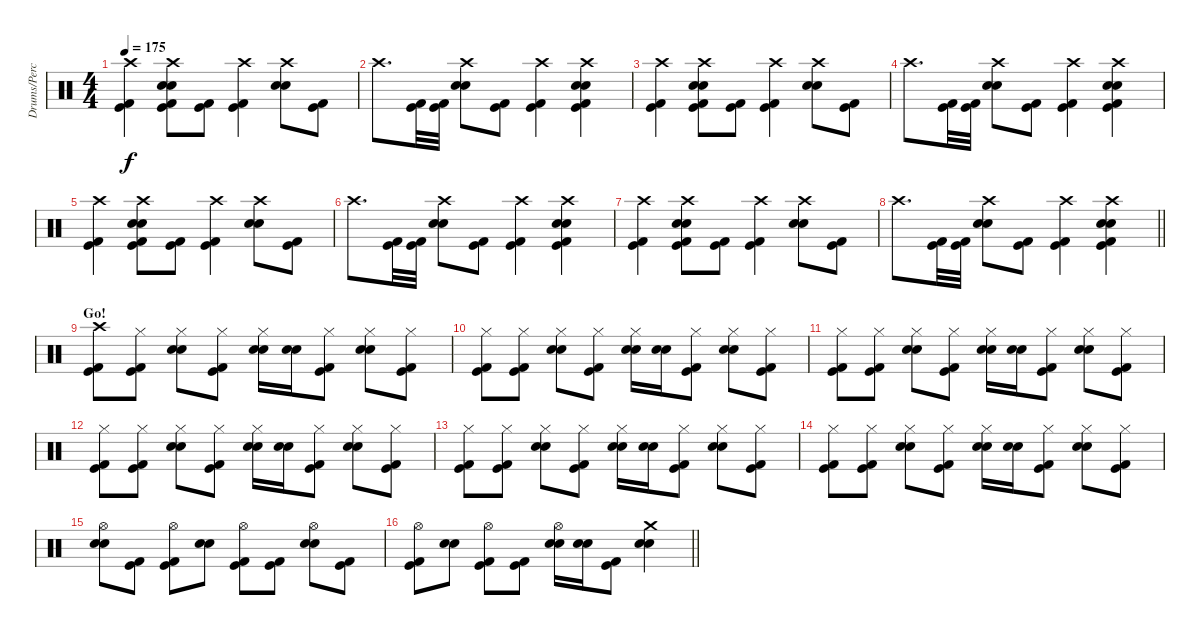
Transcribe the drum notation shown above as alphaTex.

\track ("Drums/Percussion" "Drums/Perc") {instrument percussion}
\staff {score}
\articulation defaults
\ts (4 4)
\tempo 175
\clef neutral
\ks c
("Crash high (hit)" "Kick (hit)" "Kick (hit) 2").4{dy f} ("Crash high (hit)" "Electric Snare (hit)" "Snare (hit) 2" "Kick (hit)" "Kick (hit) 2").8 ("Kick (hit)" "Kick (hit) 2").8 ("Crash high (hit)" "Kick (hit)" "Kick (hit) 2").4 ("Crash high (hit)" "Electric Snare (hit)" "Snare (hit) 2").8 ("Kick (hit)" "Kick (hit) 2").8 |
"Crash high (hit)".8{d} ("Kick (hit)" "Kick (hit) 2").32 ("Kick (hit)" "Kick (hit) 2").32 ("Crash high (hit)" "Electric Snare (hit)" "Snare (hit) 2").8 ("Kick (hit)" "Kick (hit) 2").8 ("Crash high (hit)" "Kick (hit)" "Kick (hit) 2").4 ("Crash high (hit)" "Electric Snare (hit)" "Snare (hit) 2" "Kick (hit)" "Kick (hit) 2").4 |
("Crash high (hit)" "Kick (hit)" "Kick (hit) 2").4 ("Crash high (hit)" "Electric Snare (hit)" "Snare (hit) 2" "Kick (hit)" "Kick (hit) 2").8 ("Kick (hit)" "Kick (hit) 2").8 ("Crash high (hit)" "Kick (hit)" "Kick (hit) 2").4 ("Crash high (hit)" "Electric Snare (hit)" "Snare (hit) 2").8 ("Kick (hit)" "Kick (hit) 2").8 |
"Crash high (hit)".8{d} ("Kick (hit)" "Kick (hit) 2").32 ("Kick (hit)" "Kick (hit) 2").32 ("Crash high (hit)" "Electric Snare (hit)" "Snare (hit) 2").8 ("Kick (hit)" "Kick (hit) 2").8 ("Crash high (hit)" "Kick (hit)" "Kick (hit) 2").4 ("Crash high (hit)" "Electric Snare (hit)" "Snare (hit) 2" "Kick (hit)" "Kick (hit) 2").4 |
("Crash high (hit)" "Kick (hit)" "Kick (hit) 2").4 ("Crash high (hit)" "Electric Snare (hit)" "Snare (hit) 2" "Kick (hit)" "Kick (hit) 2").8 ("Kick (hit)" "Kick (hit) 2").8 ("Crash high (hit)" "Kick (hit)" "Kick (hit) 2").4 ("Crash high (hit)" "Electric Snare (hit)" "Snare (hit) 2").8 ("Kick (hit)" "Kick (hit) 2").8 |
"Crash high (hit)".8{d} ("Kick (hit)" "Kick (hit) 2").32 ("Kick (hit)" "Kick (hit) 2").32 ("Crash high (hit)" "Electric Snare (hit)" "Snare (hit) 2").8 ("Kick (hit)" "Kick (hit) 2").8 ("Crash high (hit)" "Kick (hit)" "Kick (hit) 2").4 ("Crash high (hit)" "Electric Snare (hit)" "Snare (hit) 2" "Kick (hit)" "Kick (hit) 2").4 |
("Crash high (hit)" "Kick (hit)" "Kick (hit) 2").4 ("Crash high (hit)" "Electric Snare (hit)" "Snare (hit) 2" "Kick (hit)" "Kick (hit) 2").8 ("Kick (hit)" "Kick (hit) 2").8 ("Crash high (hit)" "Kick (hit)" "Kick (hit) 2").4 ("Crash high (hit)" "Electric Snare (hit)" "Snare (hit) 2").8 ("Kick (hit)" "Kick (hit) 2").8 |
\barLineRight lightlight "Crash high (hit)".8{d}
("Kick (hit)" "Kick (hit) 2").32 ("Kick (hit)" "Kick (hit) 2").32 ("Crash high (hit)" "Electric Snare (hit)" "Snare (hit) 2").8 ("Kick (hit)" "Kick (hit) 2").8 ("Crash high (hit)" "Kick (hit)" "Kick (hit) 2").4 ("Crash high (hit)" "Electric Snare (hit)" "Snare (hit) 2" "Kick (hit)" "Kick (hit) 2").4 |
\section ("" "Go!")
("Crash high (hit)" "Kick (hit)" "Kick (hit) 2").8 ("Hi-Hat (closed)" "Kick (hit)" "Kick (hit) 2").8 ("Hi-Hat (closed)" "Electric Snare (hit)" "Snare (hit) 2").8 ("Hi-Hat (closed)" "Kick (hit)" "Kick (hit) 2").8 ("Hi-Hat (closed)" "Electric Snare (hit)" "Snare (hit) 2").16 ("Electric Snare (hit)" "Snare (hit) 2").16 ("Hi-Hat (closed)" "Kick (hit)" "Kick (hit) 2").8 ("Hi-Hat (closed)" "Electric Snare (hit)" "Snare (hit) 2").8 ("Hi-Hat (closed)" "Kick (hit)" "Kick (hit) 2").8 |
("Hi-Hat (closed)" "Kick (hit)" "Kick (hit) 2").8 ("Hi-Hat (closed)" "Kick (hit)" "Kick (hit) 2").8 ("Hi-Hat (closed)" "Electric Snare (hit)" "Snare (hit) 2").8 ("Hi-Hat (closed)" "Kick (hit)" "Kick (hit) 2").8 ("Hi-Hat (closed)" "Electric Snare (hit)" "Snare (hit) 2").16 ("Electric Snare (hit)" "Snare (hit) 2").16 ("Hi-Hat (closed)" "Kick (hit)" "Kick (hit) 2").8 ("Hi-Hat (closed)" "Electric Snare (hit)" "Snare (hit) 2").8 ("Hi-Hat (closed)" "Kick (hit)" "Kick (hit) 2").8 |
("Hi-Hat (closed)" "Kick (hit)" "Kick (hit) 2").8 ("Hi-Hat (closed)" "Kick (hit)" "Kick (hit) 2").8 ("Hi-Hat (closed)" "Electric Snare (hit)" "Snare (hit) 2").8 ("Hi-Hat (closed)" "Kick (hit)" "Kick (hit) 2").8 ("Hi-Hat (closed)" "Electric Snare (hit)" "Snare (hit) 2").16 ("Electric Snare (hit)" "Snare (hit) 2").16 ("Hi-Hat (closed)" "Kick (hit)" "Kick (hit) 2").8 ("Hi-Hat (closed)" "Electric Snare (hit)" "Snare (hit) 2").8 ("Hi-Hat (closed)" "Kick (hit)" "Kick (hit) 2").8 |
("Hi-Hat (closed)" "Kick (hit)" "Kick (hit) 2").8 ("Hi-Hat (closed)" "Kick (hit)" "Kick (hit) 2").8 ("Hi-Hat (closed)" "Electric Snare (hit)" "Snare (hit) 2").8 ("Hi-Hat (closed)" "Kick (hit)" "Kick (hit) 2").8 ("Hi-Hat (closed)" "Electric Snare (hit)" "Snare (hit) 2").16 ("Electric Snare (hit)" "Snare (hit) 2").16 ("Hi-Hat (closed)" "Kick (hit)" "Kick (hit) 2").8 ("Hi-Hat (closed)" "Electric Snare (hit)" "Snare (hit) 2").8 ("Hi-Hat (closed)" "Kick (hit)" "Kick (hit) 2").8 |
("Hi-Hat (closed)" "Kick (hit)" "Kick (hit) 2").8 ("Hi-Hat (closed)" "Kick (hit)" "Kick (hit) 2").8 ("Hi-Hat (closed)" "Electric Snare (hit)" "Snare (hit) 2").8 ("Hi-Hat (closed)" "Kick (hit)" "Kick (hit) 2").8 ("Hi-Hat (closed)" "Electric Snare (hit)" "Snare (hit) 2").16 ("Electric Snare (hit)" "Snare (hit) 2").16 ("Hi-Hat (closed)" "Kick (hit)" "Kick (hit) 2").8 ("Hi-Hat (closed)" "Electric Snare (hit)" "Snare (hit) 2").8 ("Hi-Hat (closed)" "Kick (hit)" "Kick (hit) 2").8 |
("Hi-Hat (closed)" "Kick (hit)" "Kick (hit) 2").8 ("Hi-Hat (closed)" "Kick (hit)" "Kick (hit) 2").8 ("Hi-Hat (closed)" "Electric Snare (hit)" "Snare (hit) 2").8 ("Hi-Hat (closed)" "Kick (hit)" "Kick (hit) 2").8 ("Hi-Hat (closed)" "Electric Snare (hit)" "Snare (hit) 2").16 ("Electric Snare (hit)" "Snare (hit) 2").16 ("Hi-Hat (closed)" "Kick (hit)" "Kick (hit) 2").8 ("Hi-Hat (closed)" "Electric Snare (hit)" "Snare (hit) 2").8 ("Hi-Hat (closed)" "Kick (hit)" "Kick (hit) 2").8 |
("Hi-Hat (open)" "Electric Snare (hit)" "Snare (hit) 2").8 ("Kick (hit)" "Kick (hit) 2").8 ("Hi-Hat (open)" "Kick (hit)" "Kick (hit) 2").8 ("Electric Snare (hit)" "Snare (hit) 2").8 ("Hi-Hat (open)" "Kick (hit)" "Kick (hit) 2").8 ("Kick (hit)" "Kick (hit) 2").8 ("Hi-Hat (open)" "Electric Snare (hit)" "Snare (hit) 2").8 ("Kick (hit)" "Kick (hit) 2").8 |
\barLineRight lightlight
("Hi-Hat (open)" "Kick (hit)" "Kick (hit) 2").8 ("Electric Snare (hit)" "Snare (hit) 2").8 ("Hi-Hat (open)" "Kick (hit)" "Kick (hit) 2").8 ("Kick (hit)" "Kick (hit) 2").8 ("Hi-Hat (open)" "Electric Snare (hit)" "Snare (hit) 2").16 ("Electric Snare (hit)" "Snare (hit) 2").16 ("Kick (hit)" "Kick (hit) 2").8 ("Crash medium (hit)" "Electric Snare (hit)" "Snare (hit) 2").4
